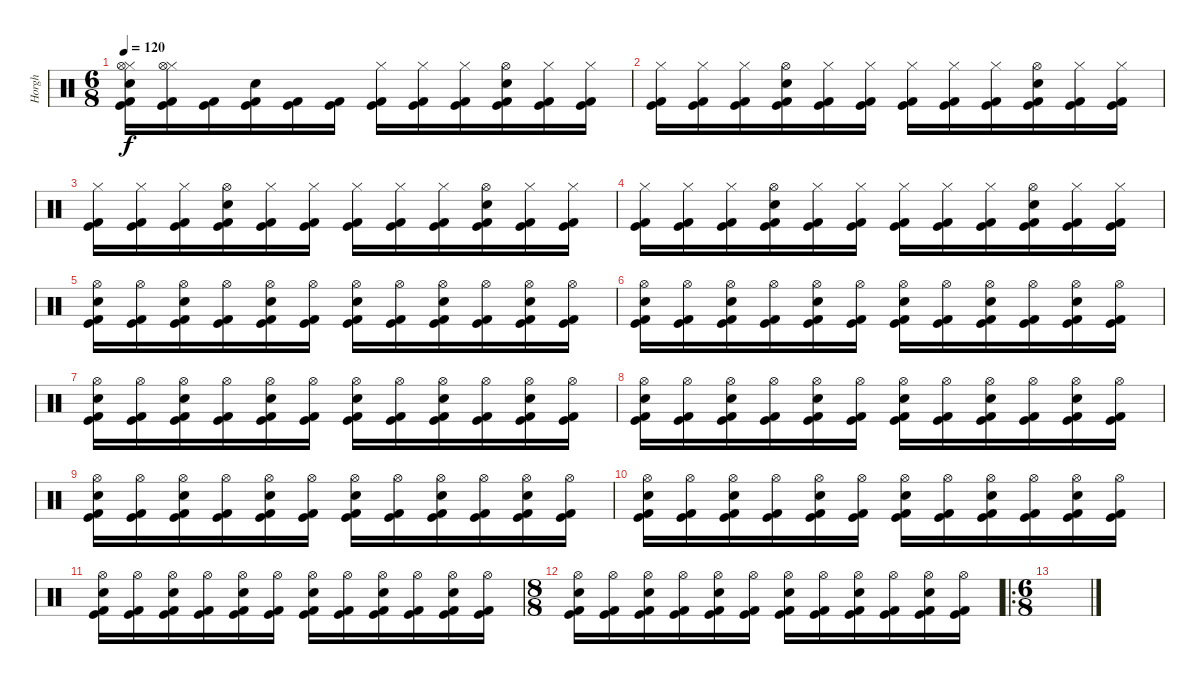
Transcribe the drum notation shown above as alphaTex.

\track ("Horgh" "Horgh") {instrument percussion}
\staff {score}
\articulation defaults
\ts (6 8)
\tempo 120
\clef neutral
\ks c
("Hi-Hat (closed)" "Hi-Hat (open)" "Electric Snare (hit)" "Kick (hit) 2" "Kick (hit)").16{dy f} ("Hi-Hat (closed)" "Hi-Hat (open)" "Kick (hit) 2" "Kick (hit)").16 ("Kick (hit) 2" "Kick (hit)").16 ("Electric Snare (hit)" "Kick (hit) 2" "Kick (hit)").16 ("Kick (hit) 2" "Kick (hit)").16 ("Kick (hit) 2" "Kick (hit)").16 ("Hi-Hat (closed)" "Kick (hit) 2" "Kick (hit)").16 ("Hi-Hat (closed)" "Kick (hit) 2" "Kick (hit)").16 ("Hi-Hat (closed)" "Kick (hit) 2" "Kick (hit)").16 ("Hi-Hat (open)" "Electric Snare (hit)" "Kick (hit) 2" "Kick (hit)").16 ("Hi-Hat (closed)" "Kick (hit) 2" "Kick (hit)").16 ("Hi-Hat (closed)" "Kick (hit) 2" "Kick (hit)").16 |
("Hi-Hat (closed)" "Kick (hit) 2" "Kick (hit)").16 ("Hi-Hat (closed)" "Kick (hit) 2" "Kick (hit)").16 ("Hi-Hat (closed)" "Kick (hit) 2" "Kick (hit)").16 ("Hi-Hat (open)" "Electric Snare (hit)" "Kick (hit) 2" "Kick (hit)").16 ("Hi-Hat (closed)" "Kick (hit) 2" "Kick (hit)").16 ("Hi-Hat (closed)" "Kick (hit) 2" "Kick (hit)").16 ("Hi-Hat (closed)" "Kick (hit) 2" "Kick (hit)").16 ("Hi-Hat (closed)" "Kick (hit) 2" "Kick (hit)").16 ("Hi-Hat (closed)" "Kick (hit) 2" "Kick (hit)").16 ("Hi-Hat (open)" "Electric Snare (hit)" "Kick (hit) 2" "Kick (hit)").16 ("Hi-Hat (closed)" "Kick (hit) 2" "Kick (hit)").16 ("Hi-Hat (closed)" "Kick (hit) 2" "Kick (hit)").16 |
("Hi-Hat (closed)" "Kick (hit) 2" "Kick (hit)").16 ("Hi-Hat (closed)" "Kick (hit) 2" "Kick (hit)").16 ("Hi-Hat (closed)" "Kick (hit) 2" "Kick (hit)").16 ("Hi-Hat (open)" "Electric Snare (hit)" "Kick (hit) 2" "Kick (hit)").16 ("Hi-Hat (closed)" "Kick (hit) 2" "Kick (hit)").16 ("Hi-Hat (closed)" "Kick (hit) 2" "Kick (hit)").16 ("Hi-Hat (closed)" "Kick (hit) 2" "Kick (hit)").16 ("Hi-Hat (closed)" "Kick (hit) 2" "Kick (hit)").16 ("Hi-Hat (closed)" "Kick (hit) 2" "Kick (hit)").16 ("Hi-Hat (open)" "Electric Snare (hit)" "Kick (hit) 2" "Kick (hit)").16 ("Hi-Hat (closed)" "Kick (hit) 2" "Kick (hit)").16 ("Hi-Hat (closed)" "Kick (hit) 2" "Kick (hit)").16 |
("Hi-Hat (closed)" "Kick (hit) 2" "Kick (hit)").16 ("Hi-Hat (closed)" "Kick (hit) 2" "Kick (hit)").16 ("Hi-Hat (closed)" "Kick (hit) 2" "Kick (hit)").16 ("Hi-Hat (open)" "Electric Snare (hit)" "Kick (hit) 2" "Kick (hit)").16 ("Hi-Hat (closed)" "Kick (hit) 2" "Kick (hit)").16 ("Hi-Hat (closed)" "Kick (hit) 2" "Kick (hit)").16 ("Hi-Hat (closed)" "Kick (hit) 2" "Kick (hit)").16 ("Hi-Hat (closed)" "Kick (hit) 2" "Kick (hit)").16 ("Hi-Hat (closed)" "Kick (hit) 2" "Kick (hit)").16 ("Hi-Hat (open)" "Electric Snare (hit)" "Kick (hit) 2" "Kick (hit)").16 ("Hi-Hat (closed)" "Kick (hit) 2" "Kick (hit)").16 ("Hi-Hat (closed)" "Kick (hit) 2" "Kick (hit)").16 |
("Hi-Hat (open)" "Electric Snare (hit)" "Kick (hit) 2" "Kick (hit)").16 ("Hi-Hat (open)" "Kick (hit) 2" "Kick (hit)").16 ("Hi-Hat (open)" "Electric Snare (hit)" "Kick (hit) 2" "Kick (hit)").16 ("Hi-Hat (open)" "Kick (hit) 2" "Kick (hit)").16 ("Hi-Hat (open)" "Electric Snare (hit)" "Kick (hit) 2" "Kick (hit)").16 ("Hi-Hat (open)" "Kick (hit) 2" "Kick (hit)").16 ("Hi-Hat (open)" "Electric Snare (hit)" "Kick (hit) 2" "Kick (hit)").16 ("Hi-Hat (open)" "Kick (hit) 2" "Kick (hit)").16 ("Hi-Hat (open)" "Electric Snare (hit)" "Kick (hit) 2" "Kick (hit)").16 ("Hi-Hat (open)" "Kick (hit) 2" "Kick (hit)").16 ("Hi-Hat (open)" "Electric Snare (hit)" "Kick (hit) 2" "Kick (hit)").16 ("Hi-Hat (open)" "Kick (hit) 2" "Kick (hit)").16 |
("Hi-Hat (open)" "Electric Snare (hit)" "Kick (hit) 2" "Kick (hit)").16 ("Hi-Hat (open)" "Kick (hit) 2" "Kick (hit)").16 ("Hi-Hat (open)" "Electric Snare (hit)" "Kick (hit) 2" "Kick (hit)").16 ("Hi-Hat (open)" "Kick (hit) 2" "Kick (hit)").16 ("Hi-Hat (open)" "Electric Snare (hit)" "Kick (hit) 2" "Kick (hit)").16 ("Hi-Hat (open)" "Kick (hit) 2" "Kick (hit)").16 ("Hi-Hat (open)" "Electric Snare (hit)" "Kick (hit) 2" "Kick (hit)").16 ("Hi-Hat (open)" "Kick (hit) 2" "Kick (hit)").16 ("Hi-Hat (open)" "Electric Snare (hit)" "Kick (hit) 2" "Kick (hit)").16 ("Hi-Hat (open)" "Kick (hit) 2" "Kick (hit)").16 ("Hi-Hat (open)" "Electric Snare (hit)" "Kick (hit) 2" "Kick (hit)").16 ("Hi-Hat (open)" "Kick (hit) 2" "Kick (hit)").16 |
("Hi-Hat (open)" "Electric Snare (hit)" "Kick (hit) 2" "Kick (hit)").16 ("Hi-Hat (open)" "Kick (hit) 2" "Kick (hit)").16 ("Hi-Hat (open)" "Electric Snare (hit)" "Kick (hit) 2" "Kick (hit)").16 ("Hi-Hat (open)" "Kick (hit) 2" "Kick (hit)").16 ("Hi-Hat (open)" "Electric Snare (hit)" "Kick (hit) 2" "Kick (hit)").16 ("Hi-Hat (open)" "Kick (hit) 2" "Kick (hit)").16 ("Hi-Hat (open)" "Electric Snare (hit)" "Kick (hit) 2" "Kick (hit)").16 ("Hi-Hat (open)" "Kick (hit) 2" "Kick (hit)").16 ("Hi-Hat (open)" "Electric Snare (hit)" "Kick (hit) 2" "Kick (hit)").16 ("Hi-Hat (open)" "Kick (hit) 2" "Kick (hit)").16 ("Hi-Hat (open)" "Electric Snare (hit)" "Kick (hit) 2" "Kick (hit)").16 ("Hi-Hat (open)" "Kick (hit) 2" "Kick (hit)").16 |
("Hi-Hat (open)" "Electric Snare (hit)" "Kick (hit) 2" "Kick (hit)").16 ("Hi-Hat (open)" "Kick (hit) 2" "Kick (hit)").16 ("Hi-Hat (open)" "Electric Snare (hit)" "Kick (hit) 2" "Kick (hit)").16 ("Hi-Hat (open)" "Kick (hit) 2" "Kick (hit)").16 ("Hi-Hat (open)" "Electric Snare (hit)" "Kick (hit) 2" "Kick (hit)").16 ("Hi-Hat (open)" "Kick (hit) 2" "Kick (hit)").16 ("Hi-Hat (open)" "Electric Snare (hit)" "Kick (hit) 2" "Kick (hit)").16 ("Hi-Hat (open)" "Kick (hit) 2" "Kick (hit)").16 ("Hi-Hat (open)" "Electric Snare (hit)" "Kick (hit) 2" "Kick (hit)").16 ("Hi-Hat (open)" "Kick (hit) 2" "Kick (hit)").16 ("Hi-Hat (open)" "Electric Snare (hit)" "Kick (hit) 2" "Kick (hit)").16 ("Hi-Hat (open)" "Kick (hit) 2" "Kick (hit)").16 |
("Hi-Hat (open)" "Electric Snare (hit)" "Kick (hit) 2" "Kick (hit)").16 ("Hi-Hat (open)" "Kick (hit) 2" "Kick (hit)").16 ("Hi-Hat (open)" "Electric Snare (hit)" "Kick (hit) 2" "Kick (hit)").16 ("Hi-Hat (open)" "Kick (hit) 2" "Kick (hit)").16 ("Hi-Hat (open)" "Electric Snare (hit)" "Kick (hit) 2" "Kick (hit)").16 ("Hi-Hat (open)" "Kick (hit) 2" "Kick (hit)").16 ("Hi-Hat (open)" "Electric Snare (hit)" "Kick (hit) 2" "Kick (hit)").16 ("Hi-Hat (open)" "Kick (hit) 2" "Kick (hit)").16 ("Hi-Hat (open)" "Electric Snare (hit)" "Kick (hit) 2" "Kick (hit)").16 ("Hi-Hat (open)" "Kick (hit) 2" "Kick (hit)").16 ("Hi-Hat (open)" "Electric Snare (hit)" "Kick (hit) 2" "Kick (hit)").16 ("Hi-Hat (open)" "Kick (hit) 2" "Kick (hit)").16 |
("Hi-Hat (open)" "Electric Snare (hit)" "Kick (hit) 2" "Kick (hit)").16 ("Hi-Hat (open)" "Kick (hit) 2" "Kick (hit)").16 ("Hi-Hat (open)" "Electric Snare (hit)" "Kick (hit) 2" "Kick (hit)").16 ("Hi-Hat (open)" "Kick (hit) 2" "Kick (hit)").16 ("Hi-Hat (open)" "Electric Snare (hit)" "Kick (hit) 2" "Kick (hit)").16 ("Hi-Hat (open)" "Kick (hit) 2" "Kick (hit)").16 ("Hi-Hat (open)" "Electric Snare (hit)" "Kick (hit) 2" "Kick (hit)").16 ("Hi-Hat (open)" "Kick (hit) 2" "Kick (hit)").16 ("Hi-Hat (open)" "Electric Snare (hit)" "Kick (hit) 2" "Kick (hit)").16 ("Hi-Hat (open)" "Kick (hit) 2" "Kick (hit)").16 ("Hi-Hat (open)" "Electric Snare (hit)" "Kick (hit) 2" "Kick (hit)").16 ("Hi-Hat (open)" "Kick (hit) 2" "Kick (hit)").16 |
("Hi-Hat (open)" "Electric Snare (hit)" "Kick (hit) 2" "Kick (hit)").16 ("Hi-Hat (open)" "Kick (hit) 2" "Kick (hit)").16 ("Hi-Hat (open)" "Electric Snare (hit)" "Kick (hit) 2" "Kick (hit)").16 ("Hi-Hat (open)" "Kick (hit) 2" "Kick (hit)").16 ("Hi-Hat (open)" "Electric Snare (hit)" "Kick (hit) 2" "Kick (hit)").16 ("Hi-Hat (open)" "Kick (hit) 2" "Kick (hit)").16 ("Hi-Hat (open)" "Electric Snare (hit)" "Kick (hit) 2" "Kick (hit)").16 ("Hi-Hat (open)" "Kick (hit) 2" "Kick (hit)").16 ("Hi-Hat (open)" "Electric Snare (hit)" "Kick (hit) 2" "Kick (hit)").16 ("Hi-Hat (open)" "Kick (hit) 2" "Kick (hit)").16 ("Hi-Hat (open)" "Electric Snare (hit)" "Kick (hit) 2" "Kick (hit)").16 ("Hi-Hat (open)" "Kick (hit) 2" "Kick (hit)").16 |
\ts (8 8)
("Hi-Hat (open)" "Electric Snare (hit)" "Kick (hit) 2" "Kick (hit)").16 ("Hi-Hat (open)" "Kick (hit) 2" "Kick (hit)").16 ("Hi-Hat (open)" "Electric Snare (hit)" "Kick (hit) 2" "Kick (hit)").16 ("Hi-Hat (open)" "Kick (hit) 2" "Kick (hit)").16 ("Hi-Hat (open)" "Electric Snare (hit)" "Kick (hit) 2" "Kick (hit)").16 ("Hi-Hat (open)" "Kick (hit) 2" "Kick (hit)").16 ("Hi-Hat (open)" "Electric Snare (hit)" "Kick (hit) 2" "Kick (hit)").16 ("Hi-Hat (open)" "Kick (hit) 2" "Kick (hit)").16 ("Hi-Hat (open)" "Electric Snare (hit)" "Kick (hit) 2" "Kick (hit)").16 ("Hi-Hat (open)" "Kick (hit) 2" "Kick (hit)").16 ("Hi-Hat (open)" "Electric Snare (hit)" "Kick (hit) 2" "Kick (hit)").16 ("Hi-Hat (open)" "Kick (hit) 2" "Kick (hit)").16 |
\ro
\ts (6 8)
